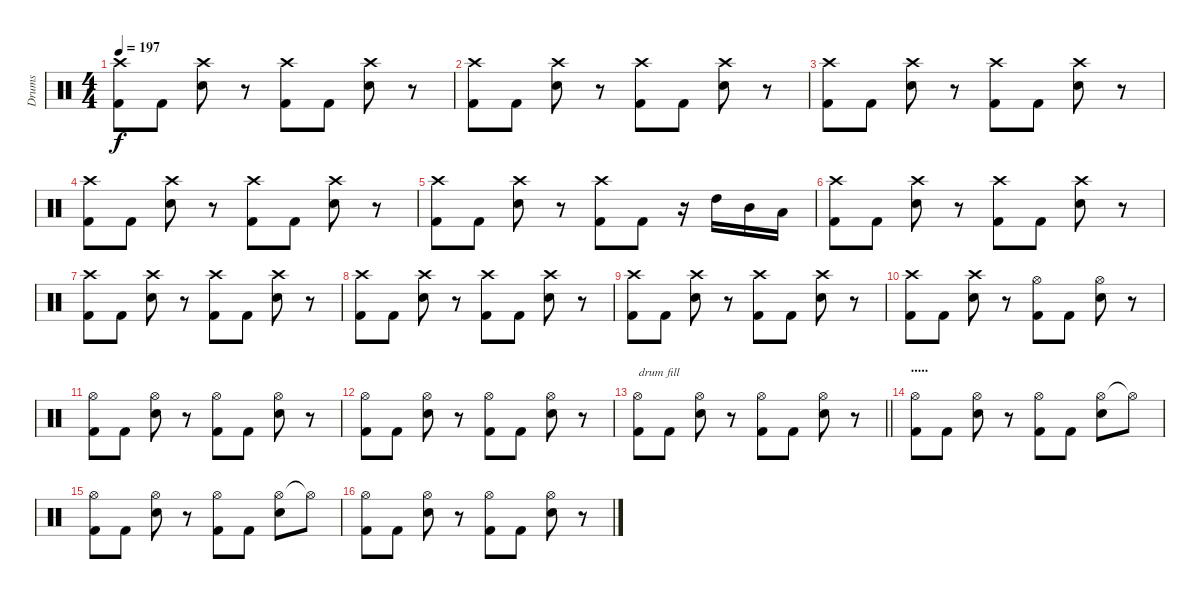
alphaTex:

\track ("Drums" "Drums") {instrument percussion}
\staff {score}
\articulation defaults
\ts (4 4)
\tempo 197
\clef neutral
\ks c
("Crash high (hit)" "Kick (hit) 2").8{dy f} "Kick (hit) 2".8 ("Crash high (hit)" "Snare (hit) 2").8 r.8 ("Crash high (hit)" "Kick (hit) 2").8 "Kick (hit) 2".8 ("Crash high (hit)" "Snare (hit) 2").8 r.8 |
("Crash high (hit)" "Kick (hit) 2").8 "Kick (hit) 2".8 ("Crash high (hit)" "Snare (hit) 2").8 r.8 ("Crash high (hit)" "Kick (hit) 2").8 "Kick (hit) 2".8 ("Crash high (hit)" "Snare (hit) 2").8 r.8 |
("Crash high (hit)" "Kick (hit) 2").8 "Kick (hit) 2".8 ("Crash high (hit)" "Snare (hit) 2").8 r.8 ("Crash high (hit)" "Kick (hit) 2").8 "Kick (hit) 2".8 ("Crash high (hit)" "Snare (hit) 2").8 r.8 |
("Crash high (hit)" "Kick (hit) 2").8 "Kick (hit) 2".8 ("Crash high (hit)" "Snare (hit) 2").8 r.8 ("Crash high (hit)" "Kick (hit) 2").8 "Kick (hit) 2".8 ("Crash high (hit)" "Snare (hit) 2").8 r.8 |
("Crash high (hit)" "Kick (hit) 2").8 "Kick (hit) 2".8 ("Crash high (hit)" "Snare (hit) 2").8 r.8 ("Crash high (hit)" "Kick (hit) 2").8 "Kick (hit) 2".8 r.16 "High Tom (hit)".16 "Mid Tom (hit)".16 "Low Tom (hit)".16 |
("Crash high (hit)" "Kick (hit) 2").8 "Kick (hit) 2".8 ("Crash high (hit)" "Snare (hit) 2").8 r.8 ("Crash high (hit)" "Kick (hit) 2").8 "Kick (hit) 2".8 ("Crash high (hit)" "Snare (hit) 2").8 r.8 |
("Crash high (hit)" "Kick (hit) 2").8 "Kick (hit) 2".8 ("Crash high (hit)" "Snare (hit) 2").8 r.8 ("Crash high (hit)" "Kick (hit) 2").8 "Kick (hit) 2".8 ("Crash high (hit)" "Snare (hit) 2").8 r.8 |
("Crash high (hit)" "Kick (hit) 2").8 "Kick (hit) 2".8 ("Crash high (hit)" "Snare (hit) 2").8 r.8 ("Crash high (hit)" "Kick (hit) 2").8 "Kick (hit) 2".8 ("Crash high (hit)" "Snare (hit) 2").8 r.8 |
("Crash high (hit)" "Kick (hit) 2").8 "Kick (hit) 2".8 ("Crash high (hit)" "Snare (hit) 2").8 r.8 ("Crash high (hit)" "Kick (hit) 2").8 "Kick (hit) 2".8 ("Crash high (hit)" "Snare (hit) 2").8 r.8 |
("Crash high (hit)" "Kick (hit) 2").8 "Kick (hit) 2".8 ("Crash high (hit)" "Snare (hit) 2").8 r.8 ("Hi-Hat (open)" "Kick (hit) 2").8 "Kick (hit) 2".8 ("Hi-Hat (open)" "Snare (hit) 2").8 r.8 |
("Hi-Hat (open)" "Kick (hit) 2").8 "Kick (hit) 2".8 ("Hi-Hat (open)" "Snare (hit) 2").8 r.8 ("Hi-Hat (open)" "Kick (hit) 2").8 "Kick (hit) 2".8 ("Hi-Hat (open)" "Snare (hit) 2").8 r.8 |
("Hi-Hat (open)" "Kick (hit) 2").8 "Kick (hit) 2".8 ("Hi-Hat (open)" "Snare (hit) 2").8 r.8 ("Hi-Hat (open)" "Kick (hit) 2").8 "Kick (hit) 2".8 ("Hi-Hat (open)" "Snare (hit) 2").8 r.8 |
\barLineRight lightlight
("Hi-Hat (open)" "Kick (hit) 2").8{txt "drum fill"} "Kick (hit) 2".8 ("Hi-Hat (open)" "Snare (hit) 2").8 r.8 ("Hi-Hat (open)" "Kick (hit) 2").8 "Kick (hit) 2".8 ("Hi-Hat (open)" "Snare (hit) 2").8 r.8 |
\section ("" ".....")
("Hi-Hat (open)" "Kick (hit) 2").8 "Kick (hit) 2".8 ("Hi-Hat (open)" "Snare (hit) 2").8 r.8 ("Hi-Hat (open)" "Kick (hit) 2").8 "Kick (hit) 2".8 ("Hi-Hat (open)" "Snare (hit) 2").8 "Hi-Hat (open)"{t}.8 |
("Hi-Hat (open)" "Kick (hit) 2").8 "Kick (hit) 2".8 ("Hi-Hat (open)" "Snare (hit) 2").8 r.8 ("Hi-Hat (open)" "Kick (hit) 2").8 "Kick (hit) 2".8 ("Hi-Hat (open)" "Snare (hit) 2").8 "Hi-Hat (open)"{t}.8 |
("Hi-Hat (open)" "Kick (hit) 2").8 "Kick (hit) 2".8 ("Hi-Hat (open)" "Snare (hit) 2").8 r.8 ("Hi-Hat (open)" "Kick (hit) 2").8 "Kick (hit) 2".8 ("Hi-Hat (open)" "Snare (hit) 2").8 r.8
